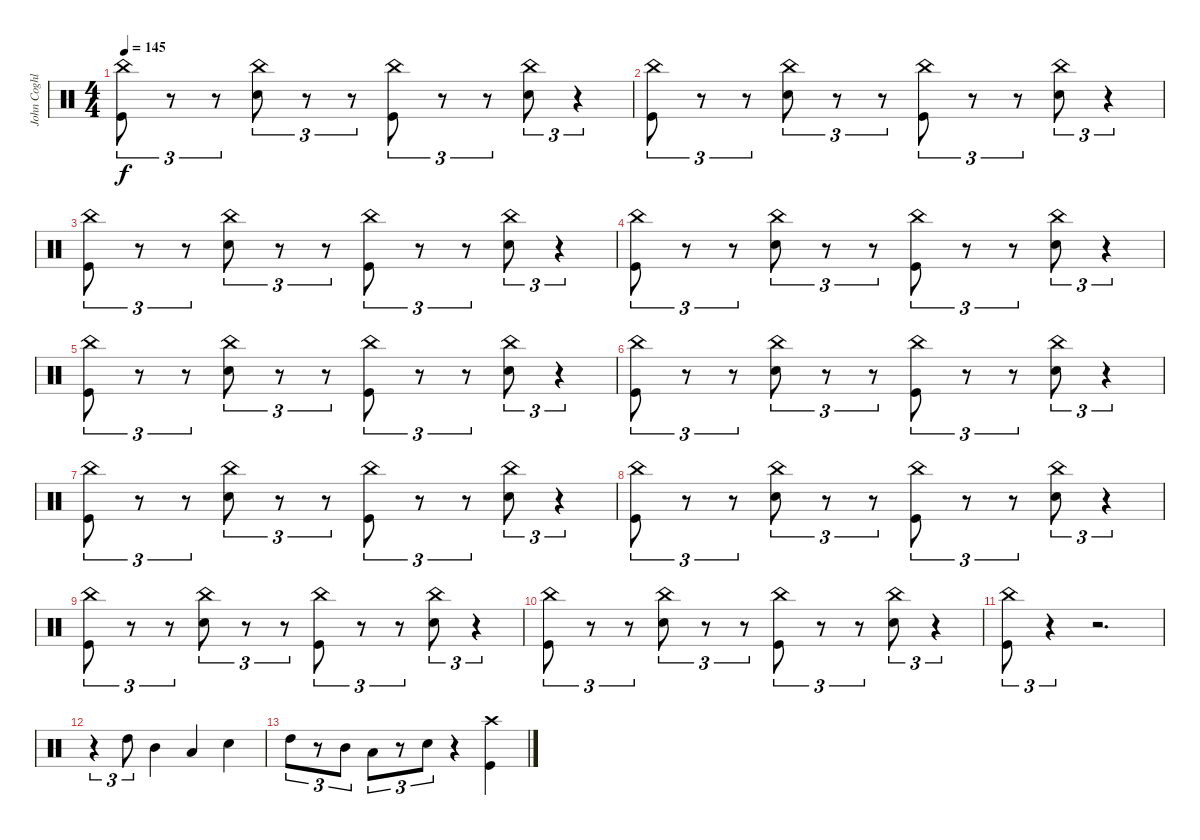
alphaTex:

\track ("John Coghlan" "John Coghl") {instrument percussion}
\staff {score}
\articulation defaults
\ts (4 4)
\tempo 145
\clef neutral
\ks c
("China (hit)" "Kick (hit)").8{tu (3 2) dy f} r.8{tu (3 2)} r.8{tu (3 2)} ("Electric Snare (hit)" "China (hit)").8{tu (3 2)} r.8{tu (3 2)} r.8{tu (3 2)} ("China (hit)" "Kick (hit)").8{tu (3 2)} r.8{tu (3 2)} r.8{tu (3 2)} ("Electric Snare (hit)" "China (hit)").8{tu (3 2)} r.4{tu (3 2)} |
("China (hit)" "Kick (hit)").8{tu (3 2)} r.8{tu (3 2)} r.8{tu (3 2)} ("Electric Snare (hit)" "China (hit)").8{tu (3 2)} r.8{tu (3 2)} r.8{tu (3 2)} ("China (hit)" "Kick (hit)").8{tu (3 2)} r.8{tu (3 2)} r.8{tu (3 2)} ("Electric Snare (hit)" "China (hit)").8{tu (3 2)} r.4{tu (3 2)} |
("China (hit)" "Kick (hit)").8{tu (3 2)} r.8{tu (3 2)} r.8{tu (3 2)} ("Electric Snare (hit)" "China (hit)").8{tu (3 2)} r.8{tu (3 2)} r.8{tu (3 2)} ("China (hit)" "Kick (hit)").8{tu (3 2)} r.8{tu (3 2)} r.8{tu (3 2)} ("Electric Snare (hit)" "China (hit)").8{tu (3 2)} r.4{tu (3 2)} |
("China (hit)" "Kick (hit)").8{tu (3 2)} r.8{tu (3 2)} r.8{tu (3 2)} ("Electric Snare (hit)" "China (hit)").8{tu (3 2)} r.8{tu (3 2)} r.8{tu (3 2)} ("China (hit)" "Kick (hit)").8{tu (3 2)} r.8{tu (3 2)} r.8{tu (3 2)} ("Electric Snare (hit)" "China (hit)").8{tu (3 2)} r.4{tu (3 2)} |
("China (hit)" "Kick (hit)").8{tu (3 2)} r.8{tu (3 2)} r.8{tu (3 2)} ("Electric Snare (hit)" "China (hit)").8{tu (3 2)} r.8{tu (3 2)} r.8{tu (3 2)} ("China (hit)" "Kick (hit)").8{tu (3 2)} r.8{tu (3 2)} r.8{tu (3 2)} ("Electric Snare (hit)" "China (hit)").8{tu (3 2)} r.4{tu (3 2)} |
("China (hit)" "Kick (hit)").8{tu (3 2)} r.8{tu (3 2)} r.8{tu (3 2)} ("Electric Snare (hit)" "China (hit)").8{tu (3 2)} r.8{tu (3 2)} r.8{tu (3 2)} ("China (hit)" "Kick (hit)").8{tu (3 2)} r.8{tu (3 2)} r.8{tu (3 2)} ("Electric Snare (hit)" "China (hit)").8{tu (3 2)} r.4{tu (3 2)} |
("China (hit)" "Kick (hit)").8{tu (3 2)} r.8{tu (3 2)} r.8{tu (3 2)} ("Electric Snare (hit)" "China (hit)").8{tu (3 2)} r.8{tu (3 2)} r.8{tu (3 2)} ("China (hit)" "Kick (hit)").8{tu (3 2)} r.8{tu (3 2)} r.8{tu (3 2)} ("Electric Snare (hit)" "China (hit)").8{tu (3 2)} r.4{tu (3 2)} |
("China (hit)" "Kick (hit)").8{tu (3 2)} r.8{tu (3 2)} r.8{tu (3 2)} ("Electric Snare (hit)" "China (hit)").8{tu (3 2)} r.8{tu (3 2)} r.8{tu (3 2)} ("China (hit)" "Kick (hit)").8{tu (3 2)} r.8{tu (3 2)} r.8{tu (3 2)} ("Electric Snare (hit)" "China (hit)").8{tu (3 2)} r.4{tu (3 2)} |
("China (hit)" "Kick (hit)").8{tu (3 2)} r.8{tu (3 2)} r.8{tu (3 2)} ("Electric Snare (hit)" "China (hit)").8{tu (3 2)} r.8{tu (3 2)} r.8{tu (3 2)} ("China (hit)" "Kick (hit)").8{tu (3 2)} r.8{tu (3 2)} r.8{tu (3 2)} ("Electric Snare (hit)" "China (hit)").8{tu (3 2)} r.4{tu (3 2)} |
("China (hit)" "Kick (hit)").8{tu (3 2)} r.8{tu (3 2)} r.8{tu (3 2)} ("Electric Snare (hit)" "China (hit)").8{tu (3 2)} r.8{tu (3 2)} r.8{tu (3 2)} ("China (hit)" "Kick (hit)").8{tu (3 2)} r.8{tu (3 2)} r.8{tu (3 2)} ("Electric Snare (hit)" "China (hit)").8{tu (3 2)} r.4{tu (3 2)} |
("China (hit)" "Kick (hit)").8{tu (3 2)} r.4{tu (3 2)} r.2{d} |
r.4{tu (3 2)} "High Tom (hit)".8{tu (3 2)} "Mid Tom (hit)".4 "Low Tom (hit)".4 "Electric Snare (hit)".4 |
"High Tom (hit)".8{tu (3 2)} r.8{tu (3 2)} "Mid Tom (hit)".8{tu (3 2)} "Low Tom (hit)".8{tu (3 2)} r.8{tu (3 2)} "Electric Snare (hit)".8{tu (3 2)} r.4 ("Crash high (hit)" "Kick (hit)").4
